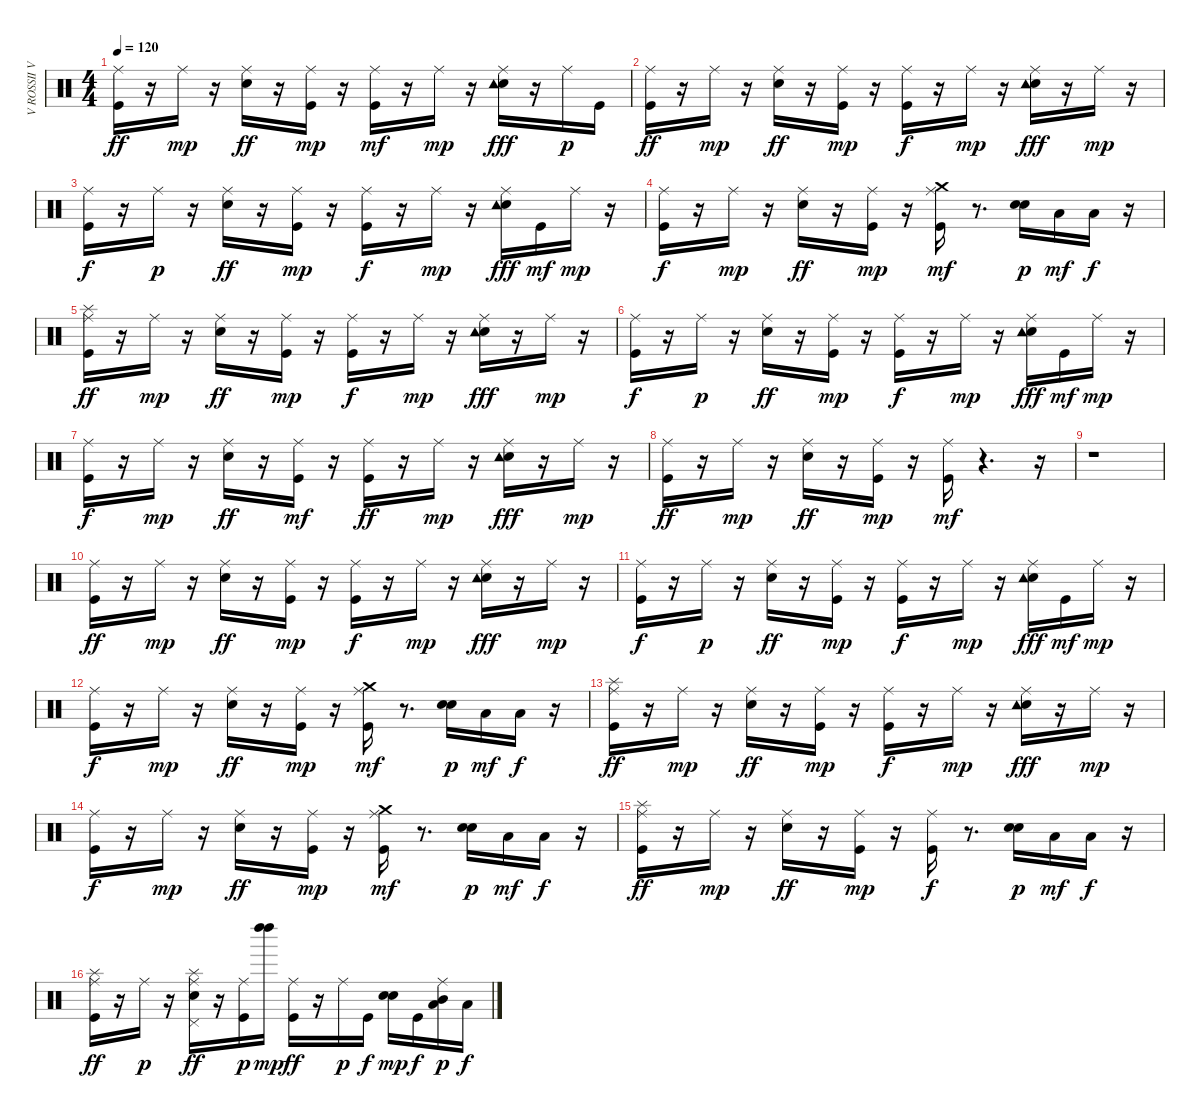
\track ("V ROSSII VECHERA     " "V ROSSII V") {instrument percussion}
\staff {score}
\articulation defaults
\ts (4 4)
\tempo 120
\clef neutral
\ks c
("Kick (hit)" "Ride (middle)").16{dy ff} r.16 "Ride (middle)".16{dy mp} r.16 ("Snare (hit) 2" "Ride (middle)").16{dy ff} r.16 ("Kick (hit)" "Ride (middle)").16{dy mp} r.16 ("Kick (hit)" "Ride (middle)").16{dy mf} r.16 "Ride (middle)".16{dy mp} r.16 ("Snare (hit) 2" "Ride (middle)" "Tambourine (hit)").16{dy fff} r.16 "Ride (middle)".16{dy p} "Kick (hit)".16 |
("Ride (middle)" "Kick (hit)").16{dy ff} r.16 "Ride (middle)".16{dy mp} r.16 ("Snare (hit) 2" "Ride (middle)").16{dy ff} r.16 ("Kick (hit)" "Ride (middle)").16{dy mp} r.16 ("Kick (hit)" "Ride (middle)").16{dy f} r.16 "Ride (middle)".16{dy mp} r.16 ("Snare (hit) 2" "Ride (middle)" "Tambourine (hit)").16{dy fff} r.16 "Ride (middle)".16{dy mp} r.16 |
("Ride (middle)" "Kick (hit)").16{dy f} r.16 "Ride (middle)".16{dy p} r.16 ("Snare (hit) 2" "Ride (middle)").16{dy ff} r.16 ("Ride (middle)" "Kick (hit)").16{dy mp} r.16 ("Ride (middle)" "Kick (hit)").16{dy f} r.16 "Ride (middle)".16{dy mp} r.16 ("Snare (hit) 2" "Ride (middle)" "Tambourine (hit)").16{dy fff} "Kick (hit)".16{dy mf} "Ride (middle)".16{dy mp} r.16 |
("Kick (hit)" "Ride (middle)").16{dy f} r.16 "Ride (middle)".16{dy mp} r.16 ("Snare (hit) 2" "Ride (middle)").16{dy ff} r.16 ("Kick (hit)" "Ride (middle)").16{dy mp} r.16 ("Crash medium (hit)" "Kick (hit)" "Ride (middle)").16{dy mf} r.8{d} ("Snare (hit) 2" "Snare (hit) 2").16{dy p} "Low Tom (hit)".16{dy mf} "Low Floor Tom (hit)".16{dy f} r.16 |
("Splash (hit)" "Ride (middle)" "Kick (hit)").16{dy ff} r.16 "Ride (middle)".16{dy mp} r.16 ("Snare (hit) 2" "Ride (middle)").16{dy ff} r.16 ("Kick (hit)" "Ride (middle)").16{dy mp} r.16 ("Kick (hit)" "Ride (middle)").16{dy f} r.16 "Ride (middle)".16{dy mp} r.16 ("Snare (hit) 2" "Ride (middle)" "Tambourine (hit)").16{dy fff} r.16 "Ride (middle)".16{dy mp} r.16 |
("Ride (middle)" "Kick (hit)").16{dy f} r.16 "Ride (middle)".16{dy p} r.16 ("Snare (hit) 2" "Ride (middle)").16{dy ff} r.16 ("Ride (middle)" "Kick (hit)").16{dy mp} r.16 ("Ride (middle)" "Kick (hit)").16{dy f} r.16 "Ride (middle)".16{dy mp} r.16 ("Snare (hit) 2" "Ride (middle)" "Tambourine (hit)").16{dy fff} "Kick (hit)".16{dy mf} "Ride (middle)".16{dy mp} r.16 |
("Kick (hit)" "Ride (middle)").16{dy f} r.16 "Ride (middle)".16{dy mp} r.16 ("Snare (hit) 2" "Ride (middle)").16{dy ff} r.16 ("Ride (middle)" "Kick (hit)").16{dy mf} r.16 ("Ride (middle)" "Kick (hit)").16{dy ff} r.16 "Ride (middle)".16{dy mp} r.16 ("Snare (hit) 2" "Ride (middle)" "Tambourine (hit)").16{dy fff} r.16 "Ride (middle)".16{dy mp} r.16 |
("Kick (hit)" "Ride (middle)").16{dy ff} r.16 "Ride (middle)".16{dy mp} r.16 ("Snare (hit) 2" "Ride (middle)").16{dy ff} r.16 ("Kick (hit)" "Ride (middle)").16{dy mp} r.16 ("Kick (hit)" "Ride (middle)").16{dy mf} r.4{d} r.16 |
r.1 |
("Ride (middle)" "Kick (hit)").16{dy ff} r.16 "Ride (middle)".16{dy mp} r.16 ("Snare (hit) 2" "Ride (middle)").16{dy ff} r.16 ("Kick (hit)" "Ride (middle)").16{dy mp} r.16 ("Kick (hit)" "Ride (middle)").16{dy f} r.16 "Ride (middle)".16{dy mp} r.16 ("Snare (hit) 2" "Ride (middle)" "Tambourine (hit)").16{dy fff} r.16 "Ride (middle)".16{dy mp} r.16 |
("Ride (middle)" "Kick (hit)").16{dy f} r.16 "Ride (middle)".16{dy p} r.16 ("Snare (hit) 2" "Ride (middle)").16{dy ff} r.16 ("Ride (middle)" "Kick (hit)").16{dy mp} r.16 ("Ride (middle)" "Kick (hit)").16{dy f} r.16 "Ride (middle)".16{dy mp} r.16 ("Snare (hit) 2" "Ride (middle)" "Tambourine (hit)").16{dy fff} "Kick (hit)".16{dy mf} "Ride (middle)".16{dy mp} r.16 |
("Kick (hit)" "Ride (middle)").16{dy f} r.16 "Ride (middle)".16{dy mp} r.16 ("Snare (hit) 2" "Ride (middle)").16{dy ff} r.16 ("Kick (hit)" "Ride (middle)").16{dy mp} r.16 ("Crash medium (hit)" "Kick (hit)" "Ride (middle)").16{dy mf} r.8{d} ("Snare (hit) 2" "Snare (hit) 2").16{dy p} "Low Tom (hit)".16{dy mf} "Low Floor Tom (hit)".16{dy f} r.16 |
("Splash (hit)" "Ride (middle)" "Kick (hit)").16{dy ff} r.16 "Ride (middle)".16{dy mp} r.16 ("Snare (hit) 2" "Ride (middle)").16{dy ff} r.16 ("Kick (hit)" "Ride (middle)").16{dy mp} r.16 ("Kick (hit)" "Ride (middle)").16{dy f} r.16 "Ride (middle)".16{dy mp} r.16 ("Snare (hit) 2" "Ride (middle)" "Tambourine (hit)").16{dy fff} r.16 "Ride (middle)".16{dy mp} r.16 |
("Ride (middle)" "Kick (hit)").16{dy f} r.16 "Ride (middle)".16{dy mp} r.16 ("Snare (hit) 2" "Ride (middle)").16{dy ff} r.16 ("Kick (hit)" "Ride (middle)").16{dy mp} r.16 ("Crash medium (hit)" "Kick (hit)" "Ride (middle)").16{dy mf} r.8{d} ("Snare (hit) 2" "Snare (hit) 2").16{dy p} "Low Tom (hit)".16{dy mf} "Low Floor Tom (hit)".16{dy f} r.16 |
("Splash (hit)" "Ride (middle)" "Kick (hit)").16{dy ff} r.16 "Ride (middle)".16{dy mp} r.16 ("Snare (hit) 2" "Ride (middle)").16{dy ff} r.16 ("Kick (hit)" "Ride (middle)").16{dy mp} r.16 ("Kick (hit)" "Ride (middle)").16{dy f} r.8{d} ("Snare (hit) 2" "Snare (hit) 2").16{dy p} "Low Tom (hit)".16{dy mf} "Low Floor Tom (hit)".16{dy f} r.16 |
("Splash (hit)" "Ride (middle)" "Kick (hit)").16{dy ff} r.16 "Ride (middle)".16{dy p} r.16 ("Splash (hit)" "Pedal Hi-Hat (hit)" "Ride (middle)" "Electric Snare (hit)").16{dy ff} r.16 ("Kick (hit)" "Ride (middle)").16{dy p} ("Left Maraca (hit)" "Left Maraca (hit)").16{dy mp} ("Ride (middle)" "Kick (hit)").16{dy ff} r.16 "Ride (middle)".16{dy p} "Kick (hit)".16{dy f} ("Electric Snare (hit)" "Electric Snare (hit)").16{dy mp} "Kick (hit)".16{dy f} ("Mid Tom (hit)" "Ride (middle)" "Low Tom (hit)").16{dy p} "Low Floor Tom (hit)".16{dy f}
